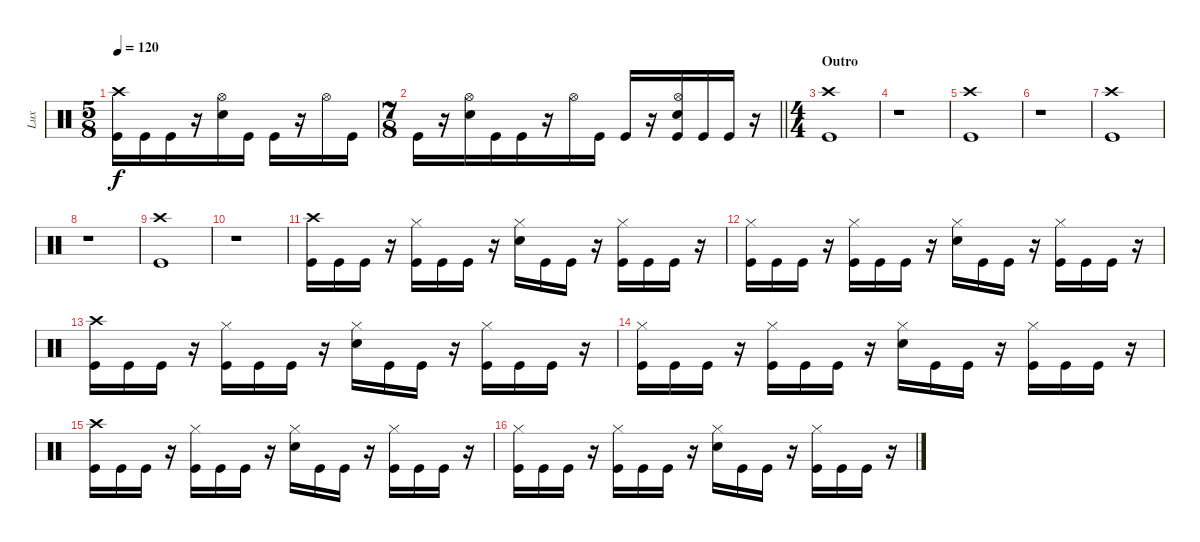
\track ("Lux" "Lux") {instrument percussion}
\staff {score}
\articulation defaults
\ts (5 8)
\tempo 120
\clef neutral
\ks c
("Crash high (hit)" "Kick (hit)").16{dy f} "Kick (hit)".16 "Kick (hit)".16 r.16 ("Hi-Hat (open)" "Snare (hit) 2").16 "Kick (hit)".16 "Kick (hit)".16 r.16 "Hi-Hat (open)".16 "Kick (hit)".16 |
\ts (7 8)
\barLineRight lightlight "Kick (hit)".16
r.16 ("Hi-Hat (open)" "Snare (hit) 2").16 "Kick (hit)".16 "Kick (hit)".16 r.16 "Hi-Hat (open)".16 "Kick (hit)".16 "Kick (hit)".16 r.16 ("Hi-Hat (open)" "Snare (hit) 2" "Kick (hit)").16 "Kick (hit)".16 "Kick (hit)".16 r.16 |
\ts (4 4)
\section ("" "Outro")
("Crash high (hit)" "Kick (hit)").1 |
r.1 |
("Crash high (hit)" "Kick (hit)").1 |
r.1 |
("Crash high (hit)" "Kick (hit)").1 |
r.1 |
("Crash high (hit)" "Kick (hit)").1 |
r.1 |
("Crash high (hit)" "Kick (hit)").16 "Kick (hit)".16 "Kick (hit)".16 r.16 ("Hi-Hat (closed)" "Kick (hit)").16 "Kick (hit)".16 "Kick (hit)".16 r.16 ("Hi-Hat (closed)" "Snare (hit) 2").16 "Kick (hit)".16 "Kick (hit)".16 r.16 ("Hi-Hat (closed)" "Kick (hit)").16 "Kick (hit)".16 "Kick (hit)".16 r.16 |
("Hi-Hat (closed)" "Kick (hit)").16 "Kick (hit)".16 "Kick (hit)".16 r.16 ("Hi-Hat (closed)" "Kick (hit)").16 "Kick (hit)".16 "Kick (hit)".16 r.16 ("Hi-Hat (closed)" "Snare (hit) 2").16 "Kick (hit)".16 "Kick (hit)".16 r.16 ("Hi-Hat (closed)" "Kick (hit)").16 "Kick (hit)".16 "Kick (hit)".16 r.16 |
("Crash high (hit)" "Kick (hit)").16 "Kick (hit)".16 "Kick (hit)".16 r.16 ("Hi-Hat (closed)" "Kick (hit)").16 "Kick (hit)".16 "Kick (hit)".16 r.16 ("Hi-Hat (closed)" "Snare (hit) 2").16 "Kick (hit)".16 "Kick (hit)".16 r.16 ("Hi-Hat (closed)" "Kick (hit)").16 "Kick (hit)".16 "Kick (hit)".16 r.16 |
("Hi-Hat (closed)" "Kick (hit)").16 "Kick (hit)".16 "Kick (hit)".16 r.16 ("Hi-Hat (closed)" "Kick (hit)").16 "Kick (hit)".16 "Kick (hit)".16 r.16 ("Hi-Hat (closed)" "Snare (hit) 2").16 "Kick (hit)".16 "Kick (hit)".16 r.16 ("Hi-Hat (closed)" "Kick (hit)").16 "Kick (hit)".16 "Kick (hit)".16 r.16 |
("Crash high (hit)" "Kick (hit)").16 "Kick (hit)".16 "Kick (hit)".16 r.16 ("Hi-Hat (closed)" "Kick (hit)").16 "Kick (hit)".16 "Kick (hit)".16 r.16 ("Hi-Hat (closed)" "Snare (hit) 2").16 "Kick (hit)".16 "Kick (hit)".16 r.16 ("Hi-Hat (closed)" "Kick (hit)").16 "Kick (hit)".16 "Kick (hit)".16 r.16 |
("Hi-Hat (closed)" "Kick (hit)").16 "Kick (hit)".16 "Kick (hit)".16 r.16 ("Hi-Hat (closed)" "Kick (hit)").16 "Kick (hit)".16 "Kick (hit)".16 r.16 ("Hi-Hat (closed)" "Snare (hit) 2").16 "Kick (hit)".16 "Kick (hit)".16 r.16 ("Hi-Hat (closed)" "Kick (hit)").16 "Kick (hit)".16 "Kick (hit)".16 r.16
